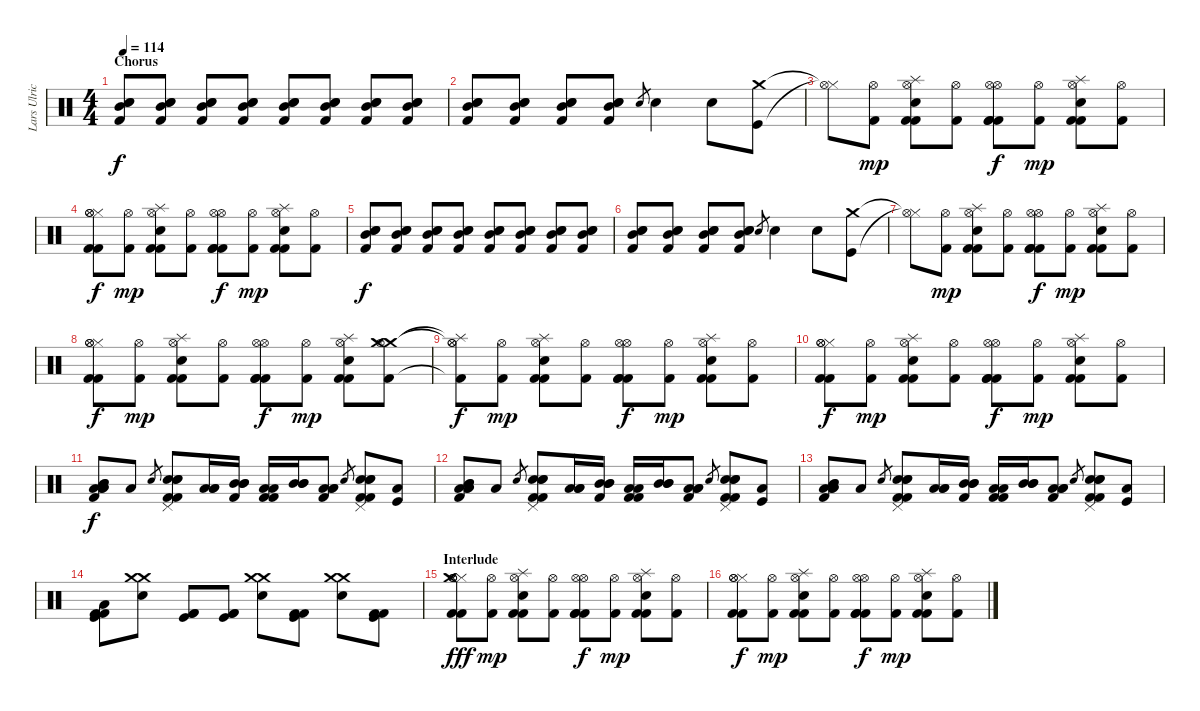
\track ("Lars Ulrich" "Lars Ulric") {instrument percussion}
\staff {score}
\articulation defaults
\ts (4 4)
\section ("" "Chorus")
\tempo 114
\clef neutral
\ks c
("Electric Snare (hit)" "Mid Tom (hit)" "Electric Snare (hit)" "Kick (hit) 2").8{dy f} ("Electric Snare (hit)" "Mid Tom (hit)" "Electric Snare (hit)" "Kick (hit) 2").8 ("Electric Snare (hit)" "Mid Tom (hit)" "Electric Snare (hit)" "Kick (hit) 2").8 ("Electric Snare (hit)" "Mid Tom (hit)" "Electric Snare (hit)" "Kick (hit) 2").8 ("Electric Snare (hit)" "Mid Tom (hit)" "Electric Snare (hit)" "Kick (hit) 2").8 ("Electric Snare (hit)" "Mid Tom (hit)" "Electric Snare (hit)" "Kick (hit) 2").8 ("Electric Snare (hit)" "Mid Tom (hit)" "Electric Snare (hit)" "Kick (hit) 2").8 ("Electric Snare (hit)" "Mid Tom (hit)" "Electric Snare (hit)" "Kick (hit) 2").8 |
("Electric Snare (hit)" "Mid Tom (hit)" "Electric Snare (hit)" "Kick (hit) 2").8 ("Electric Snare (hit)" "Mid Tom (hit)" "Electric Snare (hit)" "Kick (hit) 2").8 ("Electric Snare (hit)" "Mid Tom (hit)" "Electric Snare (hit)" "Kick (hit) 2").8 ("Electric Snare (hit)" "Mid Tom (hit)" "Electric Snare (hit)" "Kick (hit) 2").8 "Electric Snare (hit)".8{gr} "Electric Snare (hit)".4 "Electric Snare (hit)".8 ("Kick (hit)" "Crash medium (hit)").8 |
("Hi-Hat (closed)"{t} "Hi-Hat (open)"{t}).8 ("Hi-Hat (open)" "Kick (hit) 2").8{dy mp} ("Snare (hit) 2" "Splash (hit)" "Hi-Hat (open)" "Kick (hit) 2" "Kick (hit) 2").8 ("Hi-Hat (open)" "Kick (hit) 2").8 ("Kick (hit) 2" "Hi-Hat (open)" "Hi-Hat (open)" "Kick (hit) 2" "Kick (hit) 2").8{dy f} ("Hi-Hat (open)" "Kick (hit) 2").8{dy mp} ("Snare (hit) 2" "Splash (hit)" "Hi-Hat (open)" "Kick (hit) 2" "Kick (hit) 2").8 ("Hi-Hat (open)" "Kick (hit) 2").8 |
("Hi-Hat (closed)" "Hi-Hat (open)" "Hi-Hat (open)" "Kick (hit) 2" "Kick (hit) 2").8{dy f} ("Hi-Hat (open)" "Kick (hit) 2").8{dy mp} ("Snare (hit) 2" "Splash (hit)" "Hi-Hat (open)" "Kick (hit) 2" "Kick (hit) 2").8 ("Hi-Hat (open)" "Kick (hit) 2").8 ("Kick (hit) 2" "Hi-Hat (open)" "Hi-Hat (open)" "Kick (hit) 2" "Kick (hit) 2").8{dy f} ("Hi-Hat (open)" "Kick (hit) 2").8{dy mp} ("Snare (hit) 2" "Splash (hit)" "Hi-Hat (open)" "Kick (hit) 2" "Kick (hit) 2").8 ("Hi-Hat (open)" "Kick (hit) 2").8 |
("Electric Snare (hit)" "Mid Tom (hit)" "Electric Snare (hit)" "Kick (hit) 2").8{dy f} ("Electric Snare (hit)" "Mid Tom (hit)" "Electric Snare (hit)" "Kick (hit) 2").8 ("Electric Snare (hit)" "Mid Tom (hit)" "Electric Snare (hit)" "Kick (hit) 2").8 ("Electric Snare (hit)" "Mid Tom (hit)" "Electric Snare (hit)" "Kick (hit) 2").8 ("Electric Snare (hit)" "Mid Tom (hit)" "Electric Snare (hit)" "Kick (hit) 2").8 ("Electric Snare (hit)" "Mid Tom (hit)" "Electric Snare (hit)" "Kick (hit) 2").8 ("Electric Snare (hit)" "Mid Tom (hit)" "Electric Snare (hit)" "Kick (hit) 2").8 ("Electric Snare (hit)" "Mid Tom (hit)" "Electric Snare (hit)" "Kick (hit) 2").8 |
("Electric Snare (hit)" "Mid Tom (hit)" "Electric Snare (hit)" "Kick (hit) 2").8 ("Electric Snare (hit)" "Mid Tom (hit)" "Electric Snare (hit)" "Kick (hit) 2").8 ("Electric Snare (hit)" "Mid Tom (hit)" "Electric Snare (hit)" "Kick (hit) 2").8 ("Electric Snare (hit)" "Mid Tom (hit)" "Electric Snare (hit)" "Kick (hit) 2").8 "Electric Snare (hit)".8{gr} "Electric Snare (hit)".4 "Electric Snare (hit)".8 ("Kick (hit)" "Crash medium (hit)").8 |
("Hi-Hat (closed)"{t} "Hi-Hat (open)"{t}).8 ("Hi-Hat (open)" "Kick (hit) 2").8{dy mp} ("Snare (hit) 2" "Splash (hit)" "Hi-Hat (open)" "Kick (hit) 2" "Kick (hit) 2").8 ("Hi-Hat (open)" "Kick (hit) 2").8 ("Kick (hit) 2" "Hi-Hat (open)" "Hi-Hat (open)" "Kick (hit) 2" "Kick (hit) 2").8{dy f} ("Hi-Hat (open)" "Kick (hit) 2").8{dy mp} ("Snare (hit) 2" "Splash (hit)" "Hi-Hat (open)" "Kick (hit) 2" "Kick (hit) 2").8 ("Hi-Hat (open)" "Kick (hit) 2").8 |
("Hi-Hat (closed)" "Hi-Hat (open)" "Hi-Hat (open)" "Kick (hit) 2" "Kick (hit) 2").8{dy f} ("Hi-Hat (open)" "Kick (hit) 2").8{dy mp} ("Snare (hit) 2" "Splash (hit)" "Hi-Hat (open)" "Kick (hit) 2" "Kick (hit) 2").8 ("Hi-Hat (open)" "Kick (hit) 2").8 ("Kick (hit) 2" "Hi-Hat (open)" "Hi-Hat (open)" "Kick (hit) 2" "Kick (hit) 2").8{dy f} ("Hi-Hat (open)" "Kick (hit) 2").8{dy mp} ("Snare (hit) 2" "Splash (hit)" "Hi-Hat (open)" "Kick (hit) 2" "Kick (hit) 2").8 ("Crash medium (hit)" "Crash medium (hit)" "Hi-Hat (open)" "Kick (hit) 2").8 |
("Splash (hit)"{t} "Hi-Hat (open)"{t} "Hi-Hat (open)" "Kick (hit) 2"{t}).8{dy f} ("Hi-Hat (open)" "Kick (hit) 2").8{dy mp} ("Snare (hit) 2" "Splash (hit)" "Hi-Hat (open)" "Kick (hit) 2" "Kick (hit) 2").8 ("Hi-Hat (open)" "Kick (hit) 2").8 ("Kick (hit) 2" "Hi-Hat (open)" "Hi-Hat (open)" "Kick (hit) 2" "Kick (hit) 2").8{dy f} ("Hi-Hat (open)" "Kick (hit) 2").8{dy mp} ("Snare (hit) 2" "Splash (hit)" "Hi-Hat (open)" "Kick (hit) 2" "Kick (hit) 2").8 ("Hi-Hat (open)" "Kick (hit) 2").8 |
("Hi-Hat (closed)" "Hi-Hat (open)" "Hi-Hat (open)" "Kick (hit) 2" "Kick (hit) 2").8{dy f} ("Hi-Hat (open)" "Kick (hit) 2").8{dy mp} ("Snare (hit) 2" "Splash (hit)" "Hi-Hat (open)" "Kick (hit) 2" "Kick (hit) 2").8 ("Hi-Hat (open)" "Kick (hit) 2").8 ("Kick (hit) 2" "Hi-Hat (open)" "Hi-Hat (open)" "Kick (hit) 2" "Kick (hit) 2").8{dy f} ("Hi-Hat (open)" "Kick (hit) 2").8{dy mp} ("Snare (hit) 2" "Splash (hit)" "Hi-Hat (open)" "Kick (hit) 2" "Kick (hit) 2").8 ("Hi-Hat (open)" "Kick (hit) 2").8 |
("Mid Tom (hit)" "Low Floor Tom (hit)" "Kick (hit) 2" "Mid Tom (hit)" "Low Floor Tom (hit)" "Low Floor Tom (hit)").8{dy f} "Low Floor Tom (hit)".8 "Electric Snare (hit)".8{gr} ("Pedal Hi-Hat (hit)" "Electric Snare (hit)" "Electric Snare (hit)" "Electric Snare (hit)" "Kick (hit) 2" "Kick (hit) 2").8 ("Low Floor Tom (hit)" "Low Floor Tom (hit)" "Low Floor Tom (hit)").16 ("Kick (hit) 2" "Mid Tom (hit)" "Mid Tom (hit)" "Mid Tom (hit)").16 ("Kick (hit) 2" "Low Floor Tom (hit)" "Low Floor Tom (hit)" "Kick (hit) 2").16 ("Mid Tom (hit)" "Mid Tom (hit)" "Mid Tom (hit)").16 ("Kick (hit) 2" "Low Floor Tom (hit)" "Low Floor Tom (hit)" "Low Floor Tom (hit)").8 "Electric Snare (hit)".8{gr} ("Pedal Hi-Hat (hit)" "Electric Snare (hit)" "Electric Snare (hit)" "Electric Snare (hit)" "Kick (hit) 2" "Kick (hit) 2").8 ("Kick (hit)" "Low Floor Tom (hit)").8 |
("Mid Tom (hit)" "Low Floor Tom (hit)" "Kick (hit) 2" "Mid Tom (hit)" "Low Floor Tom (hit)" "Low Floor Tom (hit)").8 "Low Floor Tom (hit)".8 "Electric Snare (hit)".8{gr} ("Pedal Hi-Hat (hit)" "Electric Snare (hit)" "Electric Snare (hit)" "Electric Snare (hit)" "Kick (hit) 2" "Kick (hit) 2").8 ("Low Floor Tom (hit)" "Low Floor Tom (hit)" "Low Floor Tom (hit)").16 ("Kick (hit) 2" "Mid Tom (hit)" "Mid Tom (hit)" "Mid Tom (hit)").16 ("Kick (hit) 2" "Low Floor Tom (hit)" "Low Floor Tom (hit)" "Kick (hit) 2").16 ("Mid Tom (hit)" "Mid Tom (hit)" "Mid Tom (hit)").16 ("Kick (hit) 2" "Low Floor Tom (hit)" "Low Floor Tom (hit)" "Low Floor Tom (hit)").8 "Electric Snare (hit)".8{gr} ("Pedal Hi-Hat (hit)" "Electric Snare (hit)" "Electric Snare (hit)" "Electric Snare (hit)" "Kick (hit) 2" "Kick (hit) 2").8 ("Kick (hit)" "Low Floor Tom (hit)").8 |
("Mid Tom (hit)" "Low Floor Tom (hit)" "Kick (hit) 2" "Mid Tom (hit)" "Low Floor Tom (hit)" "Low Floor Tom (hit)").8 "Low Floor Tom (hit)".8 "Electric Snare (hit)".8{gr} ("Pedal Hi-Hat (hit)" "Electric Snare (hit)" "Electric Snare (hit)" "Electric Snare (hit)" "Kick (hit) 2" "Kick (hit) 2").8 ("Low Floor Tom (hit)" "Low Floor Tom (hit)" "Low Floor Tom (hit)").16 ("Kick (hit) 2" "Mid Tom (hit)" "Mid Tom (hit)" "Mid Tom (hit)").16 ("Kick (hit) 2" "Low Floor Tom (hit)" "Low Floor Tom (hit)" "Kick (hit) 2").16 ("Mid Tom (hit)" "Mid Tom (hit)" "Mid Tom (hit)").16 ("Kick (hit) 2" "Low Floor Tom (hit)" "Low Floor Tom (hit)" "Low Floor Tom (hit)").8 "Electric Snare (hit)".8{gr} ("Pedal Hi-Hat (hit)" "Electric Snare (hit)" "Electric Snare (hit)" "Electric Snare (hit)" "Kick (hit) 2" "Kick (hit) 2").8 ("Kick (hit)" "Low Floor Tom (hit)").8 |
("Kick (hit)" "Low Floor Tom (hit)" "Kick (hit) 2" "Kick (hit) 2").8 ("Electric Snare (hit)" "Crash medium (hit)" "Crash medium (hit)").8 ("Kick (hit)" "Kick (hit) 2" "Kick (hit) 2").8 ("Kick (hit)" "Kick (hit) 2" "Kick (hit) 2").8 ("Electric Snare (hit)" "Crash medium (hit)" "Crash medium (hit)").8 ("Kick (hit)" "Kick (hit) 2" "Kick (hit) 2").8 ("Electric Snare (hit)" "Crash medium (hit)" "Crash medium (hit)").8 ("Kick (hit)" "Kick (hit) 2" "Kick (hit) 2").8 |
\section ("" "Interlude")
("Hi-Hat (closed)" "Hi-Hat (open)" "Hi-Hat (open)" "Kick (hit) 2" "Kick (hit) 2" "Crash medium (hit)").8{dy fff} ("Hi-Hat (open)" "Kick (hit) 2").8{dy mp} ("Snare (hit) 2" "Splash (hit)" "Hi-Hat (open)" "Kick (hit) 2" "Kick (hit) 2").8 ("Hi-Hat (open)" "Kick (hit) 2").8 ("Kick (hit) 2" "Hi-Hat (open)" "Hi-Hat (open)" "Kick (hit) 2" "Kick (hit) 2").8{dy f} ("Hi-Hat (open)" "Kick (hit) 2").8{dy mp} ("Snare (hit) 2" "Splash (hit)" "Hi-Hat (open)" "Kick (hit) 2" "Kick (hit) 2").8 ("Hi-Hat (open)" "Kick (hit) 2").8 |
("Hi-Hat (closed)" "Hi-Hat (open)" "Hi-Hat (open)" "Kick (hit) 2" "Kick (hit) 2").8{dy f} ("Hi-Hat (open)" "Kick (hit) 2").8{dy mp} ("Snare (hit) 2" "Splash (hit)" "Hi-Hat (open)" "Kick (hit) 2" "Kick (hit) 2").8 ("Hi-Hat (open)" "Kick (hit) 2").8 ("Kick (hit) 2" "Hi-Hat (open)" "Hi-Hat (open)" "Kick (hit) 2" "Kick (hit) 2").8{dy f} ("Hi-Hat (open)" "Kick (hit) 2").8{dy mp} ("Snare (hit) 2" "Splash (hit)" "Hi-Hat (open)" "Kick (hit) 2" "Kick (hit) 2").8 ("Hi-Hat (open)" "Kick (hit) 2").8
